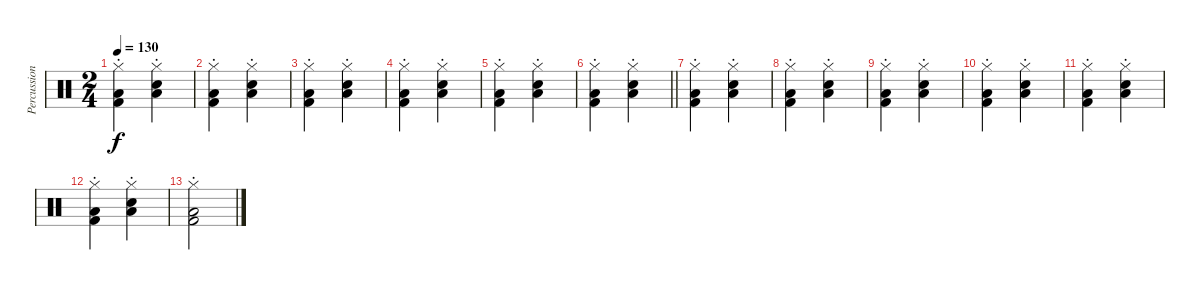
\track ("Percussion" "Percussion") {instrument percussion}
\staff {score}
\articulation defaults
\ts (2 4)
\tempo 130
\clef neutral
\ks c
("Hi-Hat (closed)"{st} "Kick (hit) 2"{st} "Low Floor Tom (hit)"{st}).4{dy f} ("Hi-Hat (closed)" "Snare (hit) 2"{st} "Low Floor Tom (hit)"{st}).4 |
("Hi-Hat (closed)"{st} "Kick (hit) 2"{st} "Low Floor Tom (hit)"{st}).4 ("Hi-Hat (closed)" "Snare (hit) 2"{st} "Low Floor Tom (hit)"{st}).4 |
("Hi-Hat (closed)"{st} "Kick (hit) 2"{st} "Low Floor Tom (hit)"{st}).4 ("Hi-Hat (closed)" "Snare (hit) 2"{st} "Low Floor Tom (hit)"{st}).4 |
("Hi-Hat (closed)"{st} "Kick (hit) 2"{st} "Low Floor Tom (hit)"{st}).4 ("Hi-Hat (closed)" "Snare (hit) 2"{st} "Low Floor Tom (hit)"{st}).4 |
("Hi-Hat (closed)"{st} "Kick (hit) 2"{st} "Low Floor Tom (hit)"{st}).4 ("Hi-Hat (closed)" "Snare (hit) 2"{st} "Low Floor Tom (hit)"{st}).4 |
\barLineRight lightlight
("Hi-Hat (closed)"{st} "Kick (hit) 2"{st} "Low Floor Tom (hit)"{st}).4 ("Hi-Hat (closed)" "Snare (hit) 2"{st} "Low Floor Tom (hit)"{st}).4 |
("Hi-Hat (closed)"{st} "Kick (hit) 2"{st} "Low Floor Tom (hit)"{st}).4 ("Hi-Hat (closed)" "Snare (hit) 2"{st} "Low Floor Tom (hit)"{st}).4 |
("Hi-Hat (closed)"{st} "Kick (hit) 2"{st} "Low Floor Tom (hit)"{st}).4 ("Hi-Hat (closed)" "Snare (hit) 2"{st} "Low Floor Tom (hit)"{st}).4 |
("Hi-Hat (closed)"{st} "Kick (hit) 2"{st} "Low Floor Tom (hit)"{st}).4 ("Hi-Hat (closed)" "Snare (hit) 2"{st} "Low Floor Tom (hit)"{st}).4 |
("Hi-Hat (closed)"{st} "Kick (hit) 2"{st} "Low Floor Tom (hit)"{st}).4 ("Hi-Hat (closed)" "Snare (hit) 2"{st} "Low Floor Tom (hit)"{st}).4 |
("Hi-Hat (closed)"{st} "Kick (hit) 2"{st} "Low Floor Tom (hit)"{st}).4 ("Hi-Hat (closed)" "Snare (hit) 2"{st} "Low Floor Tom (hit)"{st}).4 |
("Hi-Hat (closed)"{st} "Kick (hit) 2"{st} "Low Floor Tom (hit)"{st}).4 ("Hi-Hat (closed)" "Snare (hit) 2"{st} "Low Floor Tom (hit)"{st}).4 |
("Hi-Hat (closed)"{st} "Kick (hit) 2"{st} "Low Floor Tom (hit)"{st}).2
